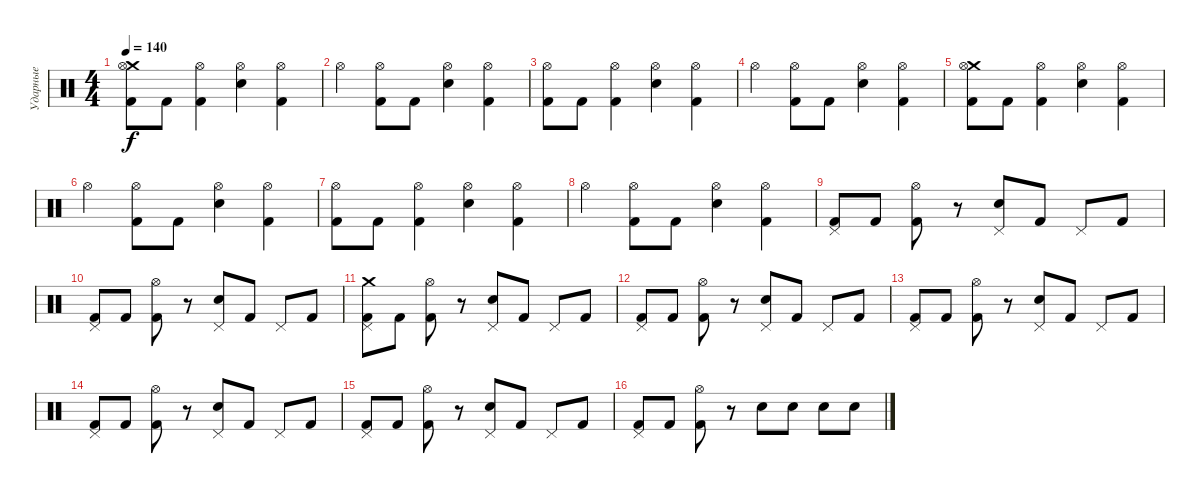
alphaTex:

\track ("Ударные" "Ударные") {instrument percussion}
\staff {score}
\articulation defaults
\ts (4 4)
\tempo 140
\clef neutral
\ks c
("Crash medium (hit)" "Hi-Hat (open)" "Kick (hit) 2").8{dy f} "Kick (hit) 2".8 ("Hi-Hat (open)" "Kick (hit) 2").4 ("Hi-Hat (open)" "Electric Snare (hit)").4 ("Hi-Hat (open)" "Kick (hit) 2").4 |
"Hi-Hat (open)".4 ("Hi-Hat (open)" "Kick (hit) 2").8 "Kick (hit) 2".8 ("Hi-Hat (open)" "Electric Snare (hit)").4 ("Hi-Hat (open)" "Kick (hit) 2").4 |
("Hi-Hat (open)" "Kick (hit) 2").8 "Kick (hit) 2".8 ("Hi-Hat (open)" "Kick (hit) 2").4 ("Hi-Hat (open)" "Electric Snare (hit)").4 ("Hi-Hat (open)" "Kick (hit) 2").4 |
"Hi-Hat (open)".4 ("Hi-Hat (open)" "Kick (hit) 2").8 "Kick (hit) 2".8 ("Hi-Hat (open)" "Electric Snare (hit)").4 ("Hi-Hat (open)" "Kick (hit) 2").4 |
("Crash medium (hit)" "Hi-Hat (open)" "Kick (hit) 2").8 "Kick (hit) 2".8 ("Hi-Hat (open)" "Kick (hit) 2").4 ("Hi-Hat (open)" "Electric Snare (hit)").4 ("Hi-Hat (open)" "Kick (hit) 2").4 |
"Hi-Hat (open)".4 ("Hi-Hat (open)" "Kick (hit) 2").8 "Kick (hit) 2".8 ("Hi-Hat (open)" "Electric Snare (hit)").4 ("Hi-Hat (open)" "Kick (hit) 2").4 |
("Hi-Hat (open)" "Kick (hit) 2").8 "Kick (hit) 2".8 ("Hi-Hat (open)" "Kick (hit) 2").4 ("Hi-Hat (open)" "Electric Snare (hit)").4 ("Hi-Hat (open)" "Kick (hit) 2").4 |
"Hi-Hat (open)".4 ("Hi-Hat (open)" "Kick (hit) 2").8 "Kick (hit) 2".8 ("Hi-Hat (open)" "Electric Snare (hit)").4 ("Hi-Hat (open)" "Kick (hit) 2").4 |
("Pedal Hi-Hat (hit)" "Kick (hit) 2").8 "Kick (hit) 2".8 ("Hi-Hat (open)" "Kick (hit) 2").8 r.8 ("Pedal Hi-Hat (hit)" "Electric Snare (hit)").8 "Kick (hit) 2".8 "Pedal Hi-Hat (hit)".8 "Kick (hit) 2".8 |
("Pedal Hi-Hat (hit)" "Kick (hit) 2").8 "Kick (hit) 2".8 ("Hi-Hat (open)" "Kick (hit) 2").8 r.8 ("Pedal Hi-Hat (hit)" "Electric Snare (hit)").8 "Kick (hit) 2".8 "Pedal Hi-Hat (hit)".8 "Kick (hit) 2".8 |
("Crash medium (hit)" "Pedal Hi-Hat (hit)" "Kick (hit) 2").8 "Kick (hit) 2".8 ("Hi-Hat (open)" "Kick (hit) 2").8 r.8 ("Pedal Hi-Hat (hit)" "Electric Snare (hit)").8 "Kick (hit) 2".8 "Pedal Hi-Hat (hit)".8 "Kick (hit) 2".8 |
("Pedal Hi-Hat (hit)" "Kick (hit) 2").8 "Kick (hit) 2".8 ("Hi-Hat (open)" "Kick (hit) 2").8 r.8 ("Pedal Hi-Hat (hit)" "Electric Snare (hit)").8 "Kick (hit) 2".8 "Pedal Hi-Hat (hit)".8 "Kick (hit) 2".8 |
("Pedal Hi-Hat (hit)" "Kick (hit) 2").8 "Kick (hit) 2".8 ("Hi-Hat (open)" "Kick (hit) 2").8 r.8 ("Pedal Hi-Hat (hit)" "Electric Snare (hit)").8 "Kick (hit) 2".8 "Pedal Hi-Hat (hit)".8 "Kick (hit) 2".8 |
("Pedal Hi-Hat (hit)" "Kick (hit) 2").8 "Kick (hit) 2".8 ("Hi-Hat (open)" "Kick (hit) 2").8 r.8 ("Pedal Hi-Hat (hit)" "Electric Snare (hit)").8 "Kick (hit) 2".8 "Pedal Hi-Hat (hit)".8 "Kick (hit) 2".8 |
("Pedal Hi-Hat (hit)" "Kick (hit) 2").8 "Kick (hit) 2".8 ("Hi-Hat (open)" "Kick (hit) 2").8 r.8 ("Pedal Hi-Hat (hit)" "Electric Snare (hit)").8 "Kick (hit) 2".8 "Pedal Hi-Hat (hit)".8 "Kick (hit) 2".8 |
("Pedal Hi-Hat (hit)" "Kick (hit) 2").8 "Kick (hit) 2".8 ("Hi-Hat (open)" "Kick (hit) 2").8 r.8 "Electric Snare (hit)".8 "Electric Snare (hit)".8 "Electric Snare (hit)".8 "Electric Snare (hit)".8
